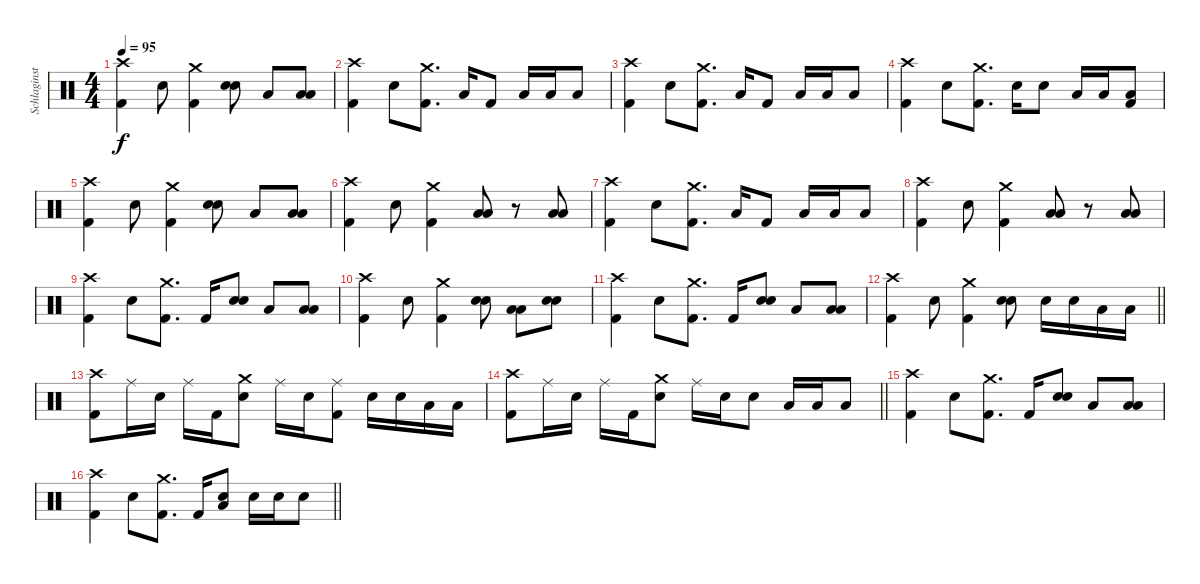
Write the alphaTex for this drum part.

\track ("Schlaginstrumente - Auswahl" "Schlaginst") {instrument percussion}
\staff {score}
\articulation defaults
\ts (4 4)
\tempo 95
\clef neutral
\ks c
("Crash high (hit)" "Kick (hit) 2").4{dy f} "Snare (hit) 2".8 ("Crash medium (hit)" "Kick (hit) 2").4 ("Snare (hit) 2" "Snare (hit) 2").8{bd 240} "Low Floor Tom (hit)".8 ("Low Tom (hit)" "Low Floor Tom (hit)").8 |
("Crash high (hit)" "Kick (hit) 2").4 "Snare (hit) 2".8 ("Crash medium (hit)" "Kick (hit) 2").8{d} "Low Floor Tom (hit)".16 "Kick (hit) 2".8 "Low Floor Tom (hit)".16 "Low Tom (hit)".16 "Low Tom (hit)".8 |
("Crash high (hit)" "Kick (hit) 2").4 "Snare (hit) 2".8 ("Crash medium (hit)" "Kick (hit) 2").8{d} "Low Floor Tom (hit)".16 "Kick (hit) 2".8 "Low Floor Tom (hit)".16 "Low Tom (hit)".16 "Low Tom (hit)".8 |
("Crash high (hit)" "Kick (hit) 2").4 "Snare (hit) 2".8 ("Crash medium (hit)" "Kick (hit) 2").8{d} "Snare (hit) 2".16 "Snare (hit) 2".8 "Low Floor Tom (hit)".16 "Low Floor Tom (hit)".16 ("Low Floor Tom (hit)" "Kick (hit) 2").8 |
("Crash high (hit)" "Kick (hit) 2").4 "Snare (hit) 2".8 ("Crash medium (hit)" "Kick (hit) 2").4 ("Snare (hit) 2" "Snare (hit) 2").8{bd 240} "Low Floor Tom (hit)".8 ("Low Tom (hit)" "Low Floor Tom (hit)").8 |
("Crash high (hit)" "Kick (hit) 2").4 "Snare (hit) 2".8 ("Crash medium (hit)" "Kick (hit) 2").4 ("Low Tom (hit)" "Low Tom (hit)").8{bd 240} r.8 ("Low Tom (hit)" "Low Floor Tom (hit)").8 |
("Crash high (hit)" "Kick (hit) 2").4 "Snare (hit) 2".8 ("Crash medium (hit)" "Kick (hit) 2").8{d} "Low Floor Tom (hit)".16 "Kick (hit) 2".8 "Low Floor Tom (hit)".16 "Low Tom (hit)".16 "Low Tom (hit)".8 |
("Crash high (hit)" "Kick (hit) 2").4 "Snare (hit) 2".8 ("Crash medium (hit)" "Kick (hit) 2").4 ("Low Tom (hit)" "Low Tom (hit)").8{bd 240} r.8 ("Low Tom (hit)" "Low Floor Tom (hit)").8 |
("Crash high (hit)" "Kick (hit) 2").4 "Snare (hit) 2".8 ("Crash medium (hit)" "Kick (hit) 2").8{d} "Kick (hit) 2".16 ("Snare (hit) 2" "Snare (hit) 2").8{bd 240} "Low Floor Tom (hit)".8 ("Low Tom (hit)" "Low Floor Tom (hit)").8 |
("Crash high (hit)" "Kick (hit) 2").4 "Snare (hit) 2".8 ("Crash medium (hit)" "Kick (hit) 2").4 ("Snare (hit) 2" "Snare (hit) 2").8{bd 240} ("Low Tom (hit)" "Low Floor Tom (hit)").8 ("Snare (hit) 2" "Snare (hit) 2").8 |
("Crash high (hit)" "Kick (hit) 2").4 "Snare (hit) 2".8 ("Crash medium (hit)" "Kick (hit) 2").8{d} "Kick (hit) 2".16 ("Snare (hit) 2" "Snare (hit) 2").8{bd 240} "Low Floor Tom (hit)".8 ("Low Tom (hit)" "Low Floor Tom (hit)").8 |
\barLineRight lightlight
("Crash high (hit)" "Kick (hit) 2").4 "Snare (hit) 2".8 ("Crash medium (hit)" "Kick (hit) 2").4 ("Snare (hit) 2" "Snare (hit) 2").8{bd 240} "Snare (hit) 2".16 "Snare (hit) 2".16 "Low Tom (hit)".16 "Low Tom (hit)".16 |
("Crash high (hit)" "Kick (hit) 2").8 "Ride (middle)".16 "Snare (hit) 2".16 "Ride (middle)".16 "Kick (hit) 2".16 ("Crash medium (hit)" "Snare (hit) 2").8 "Ride (middle)".16 "Snare (hit) 2".16 ("Ride (middle)" "Kick (hit) 2").8 "Snare (hit) 2".16 "Snare (hit) 2".16 "Low Tom (hit)".16 "Low Tom (hit)".16 |
\barLineRight lightlight
("Crash high (hit)" "Kick (hit) 2").8 "Ride (middle)".16 "Snare (hit) 2".16 "Ride (middle)".16 "Kick (hit) 2".16 ("Crash medium (hit)" "Snare (hit) 2").8 "Ride (middle)".16 "Snare (hit) 2".16 "Snare (hit) 2".8 "Low Tom (hit)".16 "Low Tom (hit)".16 "Low Floor Tom (hit)".8 |
("Crash high (hit)" "Kick (hit) 2").4 "Snare (hit) 2".8 ("Crash medium (hit)" "Kick (hit) 2").8{d} "Kick (hit) 2".16 ("Snare (hit) 2" "Snare (hit) 2").8{bd 240} "Low Floor Tom (hit)".8 ("Low Tom (hit)" "Low Floor Tom (hit)").8 |
\barLineRight lightlight
("Crash high (hit)" "Kick (hit) 2").4 "Snare (hit) 2".8 ("Crash medium (hit)" "Kick (hit) 2").8{d} "Kick (hit) 2".16 ("Snare (hit) 2" "Low Floor Tom (hit)").8 "Snare (hit) 2".16 "Snare (hit) 2".16 "Snare (hit) 2".8
